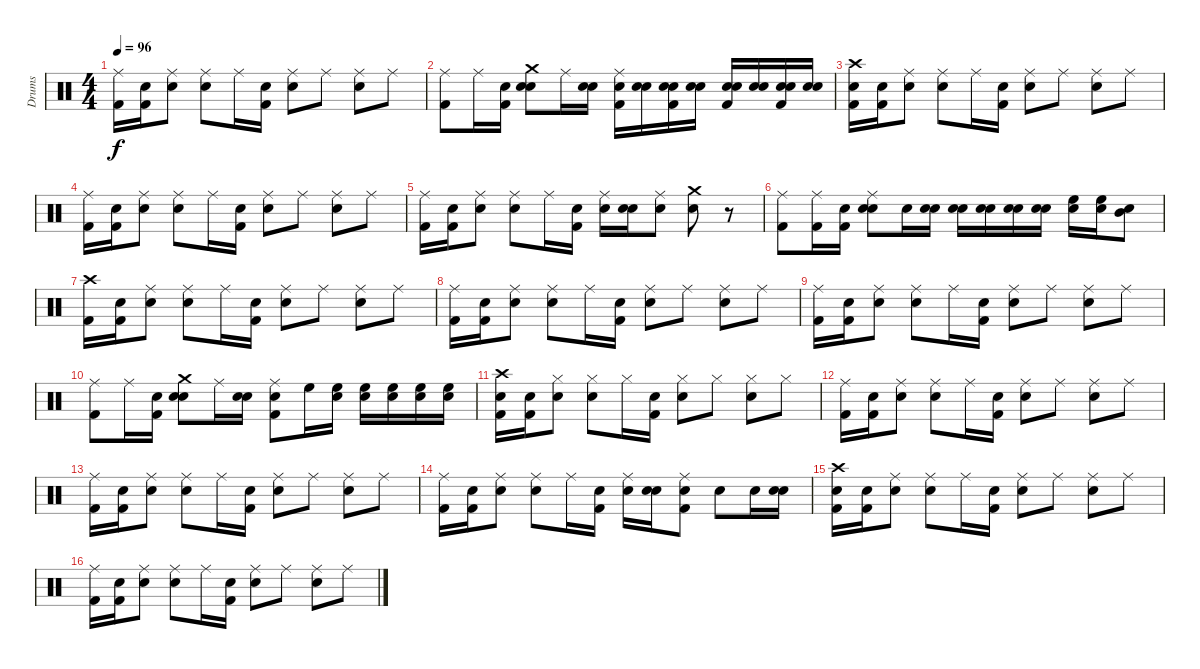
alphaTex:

\track ("Drums" "Drums") {instrument percussion}
\staff {score}
\articulation defaults
\ts (4 4)
\tempo 96
\clef neutral
\ks c
("Ride (middle)" "Kick (hit) 2").16{dy f} ("Snare (hit)" "Kick (hit) 2").16 ("Snare (hit)" "Ride (middle)").8 ("Snare (hit) 2" "Ride (middle)").8 "Ride (middle)".16 ("Snare (hit)" "Kick (hit) 2").16 ("Snare (hit)" "Ride (middle)").8 "Ride (middle)".8 ("Snare (hit) 2" "Ride (middle)").8 "Ride (middle)".8 |
("Kick (hit) 2" "Ride (middle)").8 "Ride (middle)".16 ("Snare (hit)" "Kick (hit) 2").16 ("Snare (hit)" "Crash medium (hit)" "Snare (hit) 2").8 "Ride (middle)".16 ("Snare (hit)" "Snare (hit) 2").16 ("Snare (hit)" "Kick (hit) 2" "Ride (middle)").16 ("Snare (hit)" "Snare (hit) 2").16 ("Snare (hit)" "Snare (hit) 2" "Kick (hit) 2").16 ("Snare (hit)" "Snare (hit) 2").16 ("Snare (hit)" "Snare (hit) 2" "Kick (hit) 2").16 ("Snare (hit)" "Snare (hit) 2").16 ("Snare (hit)" "Snare (hit) 2" "Kick (hit) 2").16 ("Snare (hit)" "Snare (hit) 2").16 |
("Snare (hit)" "Crash high (hit)" "Kick (hit) 2").16 ("Snare (hit)" "Kick (hit) 2").16 ("Snare (hit)" "Ride (middle)").8 ("Snare (hit) 2" "Ride (middle)").8 "Ride (middle)".16 ("Snare (hit)" "Kick (hit) 2").16 ("Snare (hit)" "Ride (middle)").8 "Ride (middle)".8 ("Snare (hit) 2" "Ride (middle)").8 "Ride (middle)".8 |
("Ride (middle)" "Kick (hit) 2").16 ("Snare (hit)" "Kick (hit) 2").16 ("Snare (hit)" "Ride (middle)").8 ("Snare (hit) 2" "Ride (middle)").8 "Ride (middle)".16 ("Snare (hit)" "Kick (hit) 2").16 ("Snare (hit)" "Ride (middle)").8 "Ride (middle)".8 ("Snare (hit) 2" "Ride (middle)").8 "Ride (middle)".8 |
("Ride (middle)" "Kick (hit) 2").16 ("Snare (hit)" "Kick (hit) 2").16 ("Snare (hit)" "Ride (middle)").8 ("Snare (hit) 2" "Ride (middle)").8 "Ride (middle)".16 ("Snare (hit)" "Kick (hit) 2").16 ("Snare (hit)" "Ride (middle)").16 ("Snare (hit)" "Snare (hit) 2").16 ("Snare (hit)" "Ride (middle)").8 ("Crash medium (hit)" "Snare (hit) 2").8 r.8 |
("Kick (hit) 2" "Ride (middle)").8 ("Kick (hit) 2" "Ride (middle)").16 ("Snare (hit)" "Kick (hit) 2").16 ("Snare (hit)" "Snare (hit) 2" "Ride (middle)").8 "Electric Snare (hit)".16 ("Snare (hit)" "Electric Snare (hit)").16 ("Snare (hit)" "Electric Snare (hit)").16 ("Snare (hit)" "Electric Snare (hit)").16 ("Snare (hit)" "Electric Snare (hit)").16 ("Snare (hit)" "Electric Snare (hit)").16 ("Snare (hit)" "High Floor Tom (hit)").16 ("Snare (hit)" "High Floor Tom (hit)").16 ("Snare (hit)" "Mid Tom (hit)").8 |
("Crash high (hit)" "Kick (hit) 2").16 ("Snare (hit)" "Kick (hit) 2").16 ("Snare (hit)" "Ride (middle)").8 ("Snare (hit) 2" "Ride (middle)").8 "Ride (middle)".16 ("Snare (hit)" "Kick (hit) 2").16 ("Snare (hit)" "Ride (middle)").8 "Ride (middle)".8 ("Snare (hit) 2" "Ride (middle)").8 "Ride (middle)".8 |
("Ride (middle)" "Kick (hit) 2").16 ("Snare (hit)" "Kick (hit) 2").16 ("Snare (hit)" "Ride (middle)").8 ("Snare (hit) 2" "Ride (middle)").8 "Ride (middle)".16 ("Snare (hit)" "Kick (hit) 2").16 ("Snare (hit)" "Ride (middle)").8 "Ride (middle)".8 ("Snare (hit) 2" "Ride (middle)").8 "Ride (middle)".8 |
("Ride (middle)" "Kick (hit) 2").16 ("Snare (hit)" "Kick (hit) 2").16 ("Snare (hit)" "Ride (middle)").8 ("Snare (hit) 2" "Ride (middle)").8 "Ride (middle)".16 ("Snare (hit)" "Kick (hit) 2").16 ("Snare (hit)" "Ride (middle)").8 "Ride (middle)".8 ("Snare (hit) 2" "Ride (middle)").8 "Ride (middle)".8 |
("Kick (hit) 2" "Ride (middle)").8 "Ride (middle)".16 ("Snare (hit)" "Kick (hit) 2").16 ("Snare (hit)" "Crash medium (hit)" "Snare (hit) 2").8 "Ride (middle)".16 ("Snare (hit)" "Snare (hit) 2").16 ("Snare (hit)" "Kick (hit) 2" "Ride (middle)").8 "High Floor Tom (hit)".16 ("Snare (hit)" "High Floor Tom (hit)").16 ("Snare (hit)" "High Floor Tom (hit)").16 ("Snare (hit)" "High Floor Tom (hit)").16 ("Snare (hit)" "High Floor Tom (hit)").16 ("Snare (hit)" "High Floor Tom (hit)").16 |
("Snare (hit)" "Crash high (hit)" "Kick (hit) 2").16 ("Snare (hit)" "Kick (hit) 2").16 ("Snare (hit)" "Hi-Hat (closed)").8 ("Snare (hit) 2" "Hi-Hat (closed)").8 "Hi-Hat (closed)".16 ("Snare (hit)" "Kick (hit) 2").16 ("Snare (hit)" "Hi-Hat (closed)").8 "Hi-Hat (closed)".8 ("Snare (hit) 2" "Hi-Hat (closed)").8 "Hi-Hat (closed)".8 |
("Ride (middle)" "Kick (hit) 2").16 ("Snare (hit)" "Kick (hit) 2").16 ("Snare (hit)" "Ride (middle)").8 ("Snare (hit) 2" "Ride (middle)").8 "Ride (middle)".16 ("Snare (hit)" "Kick (hit) 2").16 ("Snare (hit)" "Ride (middle)").8 "Ride (middle)".8 ("Snare (hit) 2" "Ride (middle)").8 "Ride (middle)".8 |
("Ride (middle)" "Kick (hit) 2").16 ("Snare (hit)" "Kick (hit) 2").16 ("Snare (hit)" "Ride (middle)").8 ("Snare (hit) 2" "Ride (middle)").8 "Ride (middle)".16 ("Snare (hit)" "Kick (hit) 2").16 ("Snare (hit)" "Ride (middle)").8 "Ride (middle)".8 ("Snare (hit) 2" "Ride (middle)").8 "Ride (middle)".8 |
("Ride (middle)" "Kick (hit) 2").16 ("Snare (hit)" "Kick (hit) 2").16 ("Snare (hit)" "Ride (middle)").8 ("Snare (hit) 2" "Ride (middle)").8 "Ride (middle)".16 ("Snare (hit)" "Kick (hit) 2").16 ("Snare (hit)" "Ride (middle)").16 ("Snare (hit)" "Snare (hit) 2").16 ("Snare (hit)" "Kick (hit) 2" "Ride (middle)").8 "Snare (hit) 2".8 "Snare (hit) 2".16 ("Snare (hit)" "Snare (hit) 2").16 |
("Snare (hit)" "Crash high (hit)" "Kick (hit) 2").16 ("Snare (hit)" "Kick (hit) 2").16 ("Snare (hit)" "Ride (middle)").8 ("Snare (hit) 2" "Ride (middle)").8 "Ride (middle)".16 ("Snare (hit)" "Kick (hit) 2").16 ("Snare (hit)" "Ride (middle)").8 "Ride (middle)".8 ("Snare (hit) 2" "Ride (middle)").8 "Ride (middle)".8 |
("Ride (middle)" "Kick (hit) 2").16 ("Snare (hit)" "Kick (hit) 2").16 ("Snare (hit)" "Ride (middle)").8 ("Snare (hit) 2" "Ride (middle)").8 "Ride (middle)".16 ("Snare (hit)" "Kick (hit) 2").16 ("Snare (hit)" "Ride (middle)").8 "Ride (middle)".8 ("Snare (hit) 2" "Ride (middle)").8 "Ride (middle)".8
